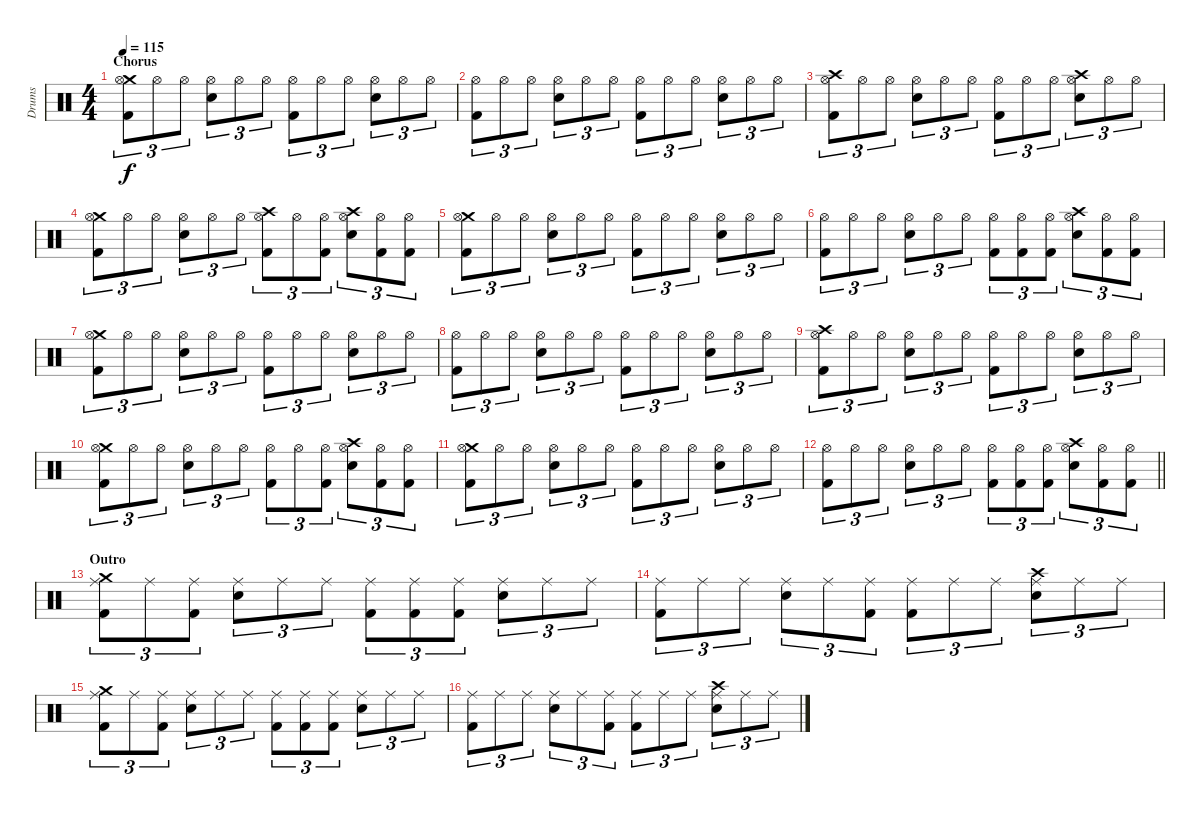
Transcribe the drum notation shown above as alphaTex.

\track ("Drums" "Drums") {instrument percussion}
\staff {score}
\articulation defaults
\ts (4 4)
\section ("" "Chorus")
\tempo 115
\clef neutral
\ks c
("Crash medium (hit)" "Hi-Hat (open)" "Kick (hit) 2").8{tu (3 2) dy f} "Hi-Hat (open)".8{tu (3 2)} "Hi-Hat (open)".8{tu (3 2)} ("Hi-Hat (open)" "Snare (hit) 2").8{tu (3 2)} "Hi-Hat (open)".8{tu (3 2)} "Hi-Hat (open)".8{tu (3 2)} ("Hi-Hat (open)" "Kick (hit) 2").8{tu (3 2)} "Hi-Hat (open)".8{tu (3 2)} "Hi-Hat (open)".8{tu (3 2)} ("Hi-Hat (open)" "Snare (hit) 2").8{tu (3 2)} "Hi-Hat (open)".8{tu (3 2)} "Hi-Hat (open)".8{tu (3 2)} |
("Hi-Hat (open)" "Kick (hit) 2").8{tu (3 2)} "Hi-Hat (open)".8{tu (3 2)} "Hi-Hat (open)".8{tu (3 2)} ("Hi-Hat (open)" "Snare (hit) 2").8{tu (3 2)} "Hi-Hat (open)".8{tu (3 2)} "Hi-Hat (open)".8{tu (3 2)} ("Hi-Hat (open)" "Kick (hit) 2").8{tu (3 2)} "Hi-Hat (open)".8{tu (3 2)} "Hi-Hat (open)".8{tu (3 2)} ("Hi-Hat (open)" "Snare (hit) 2").8{tu (3 2)} "Hi-Hat (open)".8{tu (3 2)} "Hi-Hat (open)".8{tu (3 2)} |
("Crash high (hit)" "Hi-Hat (open)" "Kick (hit) 2").8{tu (3 2)} "Hi-Hat (open)".8{tu (3 2)} "Hi-Hat (open)".8{tu (3 2)} ("Hi-Hat (open)" "Snare (hit) 2").8{tu (3 2)} "Hi-Hat (open)".8{tu (3 2)} "Hi-Hat (open)".8{tu (3 2)} ("Hi-Hat (open)" "Kick (hit) 2").8{tu (3 2)} "Hi-Hat (open)".8{tu (3 2)} "Hi-Hat (open)".8{tu (3 2)} ("Crash high (hit)" "Hi-Hat (open)" "Snare (hit) 2").8{tu (3 2)} "Hi-Hat (open)".8{tu (3 2)} "Hi-Hat (open)".8{tu (3 2)} |
("Crash medium (hit)" "Hi-Hat (open)" "Kick (hit) 2").8{tu (3 2)} "Hi-Hat (open)".8{tu (3 2)} "Hi-Hat (open)".8{tu (3 2)} ("Hi-Hat (open)" "Snare (hit) 2").8{tu (3 2)} "Hi-Hat (open)".8{tu (3 2)} "Hi-Hat (open)".8{tu (3 2)} ("Crash high (hit)" "Hi-Hat (open)" "Kick (hit) 2").8{tu (3 2)} "Hi-Hat (open)".8{tu (3 2)} ("Hi-Hat (open)" "Kick (hit) 2").8{tu (3 2)} ("Crash high (hit)" "Hi-Hat (open)" "Snare (hit) 2").8{tu (3 2)} ("Hi-Hat (open)" "Kick (hit) 2").8{tu (3 2)} ("Hi-Hat (open)" "Kick (hit) 2").8{tu (3 2)} |
("Crash medium (hit)" "Hi-Hat (open)" "Kick (hit) 2").8{tu (3 2)} "Hi-Hat (open)".8{tu (3 2)} "Hi-Hat (open)".8{tu (3 2)} ("Hi-Hat (open)" "Snare (hit) 2").8{tu (3 2)} "Hi-Hat (open)".8{tu (3 2)} "Hi-Hat (open)".8{tu (3 2)} ("Hi-Hat (open)" "Kick (hit) 2").8{tu (3 2)} "Hi-Hat (open)".8{tu (3 2)} "Hi-Hat (open)".8{tu (3 2)} ("Hi-Hat (open)" "Snare (hit) 2").8{tu (3 2)} "Hi-Hat (open)".8{tu (3 2)} "Hi-Hat (open)".8{tu (3 2)} |
("Hi-Hat (open)" "Kick (hit) 2").8{tu (3 2)} "Hi-Hat (open)".8{tu (3 2)} "Hi-Hat (open)".8{tu (3 2)} ("Hi-Hat (open)" "Snare (hit) 2").8{tu (3 2)} "Hi-Hat (open)".8{tu (3 2)} "Hi-Hat (open)".8{tu (3 2)} ("Hi-Hat (open)" "Kick (hit) 2").8{tu (3 2)} ("Hi-Hat (open)" "Kick (hit) 2").8{tu (3 2)} ("Hi-Hat (open)" "Kick (hit) 2").8{tu (3 2)} ("Crash high (hit)" "Hi-Hat (open)" "Snare (hit) 2").8{tu (3 2)} ("Hi-Hat (open)" "Kick (hit) 2").8{tu (3 2)} ("Hi-Hat (open)" "Kick (hit) 2").8{tu (3 2)} |
("Crash medium (hit)" "Hi-Hat (open)" "Kick (hit) 2").8{tu (3 2)} "Hi-Hat (open)".8{tu (3 2)} "Hi-Hat (open)".8{tu (3 2)} ("Hi-Hat (open)" "Snare (hit) 2").8{tu (3 2)} "Hi-Hat (open)".8{tu (3 2)} "Hi-Hat (open)".8{tu (3 2)} ("Hi-Hat (open)" "Kick (hit) 2").8{tu (3 2)} "Hi-Hat (open)".8{tu (3 2)} "Hi-Hat (open)".8{tu (3 2)} ("Hi-Hat (open)" "Snare (hit) 2").8{tu (3 2)} "Hi-Hat (open)".8{tu (3 2)} "Hi-Hat (open)".8{tu (3 2)} |
("Hi-Hat (open)" "Kick (hit) 2").8{tu (3 2)} "Hi-Hat (open)".8{tu (3 2)} "Hi-Hat (open)".8{tu (3 2)} ("Hi-Hat (open)" "Snare (hit) 2").8{tu (3 2)} "Hi-Hat (open)".8{tu (3 2)} "Hi-Hat (open)".8{tu (3 2)} ("Hi-Hat (open)" "Kick (hit) 2").8{tu (3 2)} "Hi-Hat (open)".8{tu (3 2)} "Hi-Hat (open)".8{tu (3 2)} ("Hi-Hat (open)" "Snare (hit) 2").8{tu (3 2)} "Hi-Hat (open)".8{tu (3 2)} "Hi-Hat (open)".8{tu (3 2)} |
("Crash high (hit)" "Hi-Hat (open)" "Kick (hit) 2").8{tu (3 2)} "Hi-Hat (open)".8{tu (3 2)} "Hi-Hat (open)".8{tu (3 2)} ("Hi-Hat (open)" "Snare (hit) 2").8{tu (3 2)} "Hi-Hat (open)".8{tu (3 2)} "Hi-Hat (open)".8{tu (3 2)} ("Hi-Hat (open)" "Kick (hit) 2").8{tu (3 2)} "Hi-Hat (open)".8{tu (3 2)} "Hi-Hat (open)".8{tu (3 2)} ("Hi-Hat (open)" "Snare (hit) 2").8{tu (3 2)} "Hi-Hat (open)".8{tu (3 2)} "Hi-Hat (open)".8{tu (3 2)} |
("Crash medium (hit)" "Hi-Hat (open)" "Kick (hit) 2").8{tu (3 2)} "Hi-Hat (open)".8{tu (3 2)} "Hi-Hat (open)".8{tu (3 2)} ("Hi-Hat (open)" "Snare (hit) 2").8{tu (3 2)} "Hi-Hat (open)".8{tu (3 2)} "Hi-Hat (open)".8{tu (3 2)} ("Hi-Hat (open)" "Kick (hit) 2").8{tu (3 2)} "Hi-Hat (open)".8{tu (3 2)} ("Hi-Hat (open)" "Kick (hit) 2").8{tu (3 2)} ("Crash high (hit)" "Hi-Hat (open)" "Snare (hit) 2").8{tu (3 2)} ("Hi-Hat (open)" "Kick (hit) 2").8{tu (3 2)} ("Hi-Hat (open)" "Kick (hit) 2").8{tu (3 2)} |
("Crash medium (hit)" "Hi-Hat (open)" "Kick (hit) 2").8{tu (3 2)} "Hi-Hat (open)".8{tu (3 2)} "Hi-Hat (open)".8{tu (3 2)} ("Hi-Hat (open)" "Snare (hit) 2").8{tu (3 2)} "Hi-Hat (open)".8{tu (3 2)} "Hi-Hat (open)".8{tu (3 2)} ("Hi-Hat (open)" "Kick (hit) 2").8{tu (3 2)} "Hi-Hat (open)".8{tu (3 2)} "Hi-Hat (open)".8{tu (3 2)} ("Hi-Hat (open)" "Snare (hit) 2").8{tu (3 2)} "Hi-Hat (open)".8{tu (3 2)} "Hi-Hat (open)".8{tu (3 2)} |
\barLineRight lightlight
("Hi-Hat (open)" "Kick (hit) 2").8{tu (3 2)} "Hi-Hat (open)".8{tu (3 2)} "Hi-Hat (open)".8{tu (3 2)} ("Hi-Hat (open)" "Snare (hit) 2").8{tu (3 2)} "Hi-Hat (open)".8{tu (3 2)} "Hi-Hat (open)".8{tu (3 2)} ("Hi-Hat (open)" "Kick (hit) 2").8{tu (3 2)} ("Hi-Hat (open)" "Kick (hit) 2").8{tu (3 2)} ("Hi-Hat (open)" "Kick (hit) 2").8{tu (3 2)} ("Crash high (hit)" "Hi-Hat (open)" "Snare (hit) 2").8{tu (3 2)} ("Hi-Hat (open)" "Kick (hit) 2").8{tu (3 2)} ("Hi-Hat (open)" "Kick (hit) 2").8{tu (3 2)} |
\section ("" "Outro")
("Crash medium (hit)" "Ride (middle)" "Kick (hit) 2").8{tu (3 2)} "Ride (middle)".8{tu (3 2)} ("Ride (middle)" "Kick (hit) 2").8{tu (3 2)} ("Ride (middle)" "Snare (hit) 2").8{tu (3 2)} "Ride (middle)".8{tu (3 2)} "Ride (middle)".8{tu (3 2)} ("Ride (middle)" "Kick (hit) 2").8{tu (3 2)} ("Ride (middle)" "Kick (hit) 2").8{tu (3 2)} ("Ride (middle)" "Kick (hit) 2").8{tu (3 2)} ("Ride (middle)" "Snare (hit) 2").8{tu (3 2)} "Ride (middle)".8{tu (3 2)} "Ride (middle)".8{tu (3 2)} |
("Ride (middle)" "Kick (hit) 2").8{tu (3 2)} "Ride (middle)".8{tu (3 2)} "Ride (middle)".8{tu (3 2)} ("Ride (middle)" "Snare (hit) 2").8{tu (3 2)} "Ride (middle)".8{tu (3 2)} ("Ride (middle)" "Kick (hit) 2").8{tu (3 2)} ("Ride (middle)" "Kick (hit) 2").8{tu (3 2)} "Ride (middle)".8{tu (3 2)} "Ride (middle)".8{tu (3 2)} ("Crash high (hit)" "Ride (middle)" "Snare (hit) 2").8{tu (3 2)} "Ride (middle)".8{tu (3 2)} "Ride (middle)".8{tu (3 2)} |
("Crash medium (hit)" "Ride (middle)" "Kick (hit) 2").8{tu (3 2)} "Ride (middle)".8{tu (3 2)} ("Ride (middle)" "Kick (hit) 2").8{tu (3 2)} ("Ride (middle)" "Snare (hit) 2").8{tu (3 2)} "Ride (middle)".8{tu (3 2)} "Ride (middle)".8{tu (3 2)} ("Ride (middle)" "Kick (hit) 2").8{tu (3 2)} ("Ride (middle)" "Kick (hit) 2").8{tu (3 2)} ("Ride (middle)" "Kick (hit) 2").8{tu (3 2)} ("Ride (middle)" "Snare (hit) 2").8{tu (3 2)} "Ride (middle)".8{tu (3 2)} "Ride (middle)".8{tu (3 2)} |
("Ride (middle)" "Kick (hit) 2").8{tu (3 2)} "Ride (middle)".8{tu (3 2)} "Ride (middle)".8{tu (3 2)} ("Ride (middle)" "Snare (hit) 2").8{tu (3 2)} "Ride (middle)".8{tu (3 2)} ("Ride (middle)" "Kick (hit) 2").8{tu (3 2)} ("Ride (middle)" "Kick (hit) 2").8{tu (3 2)} "Ride (middle)".8{tu (3 2)} "Ride (middle)".8{tu (3 2)} ("Crash high (hit)" "Ride (middle)" "Snare (hit) 2").8{tu (3 2)} "Ride (middle)".8{tu (3 2)} "Ride (middle)".8{tu (3 2)}
